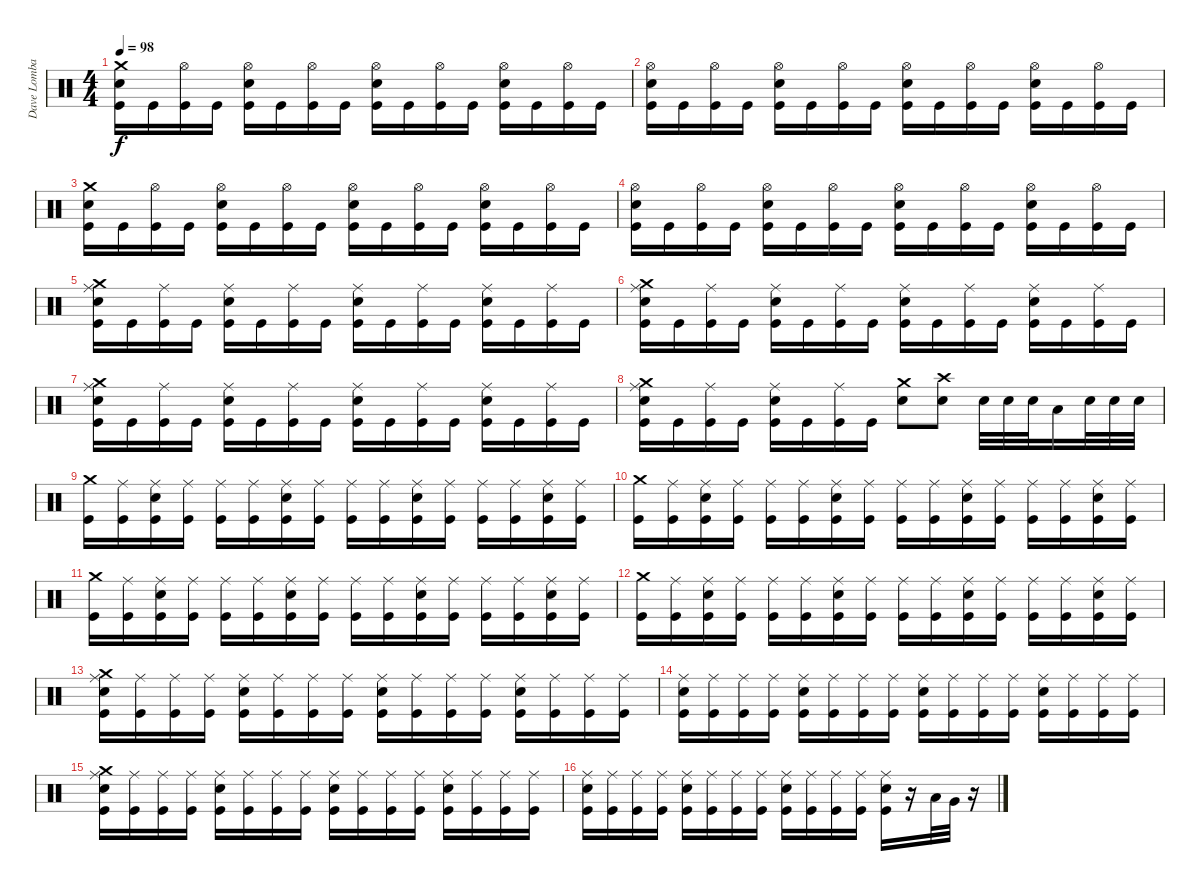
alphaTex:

\track ("Dave Lombardo (Drum)" "Dave Lomba") {instrument percussion}
\staff {score}
\articulation defaults
\ts (4 4)
\tempo 98
\clef neutral
\ks c
("Snare (hit) 2" "Crash medium (hit)" "Kick (hit)").16{dy f} "Kick (hit)".16 ("Hi-Hat (open)" "Kick (hit)").16 "Kick (hit)".16 ("Snare (hit) 2" "Hi-Hat (open)" "Kick (hit)").16 "Kick (hit)".16 ("Hi-Hat (open)" "Kick (hit)").16 "Kick (hit)".16 ("Snare (hit) 2" "Hi-Hat (open)" "Kick (hit)").16 "Kick (hit)".16 ("Hi-Hat (open)" "Kick (hit)").16 "Kick (hit)".16 ("Snare (hit) 2" "Hi-Hat (open)" "Kick (hit)").16 "Kick (hit)".16 ("Hi-Hat (open)" "Kick (hit)").16 "Kick (hit)".16 |
("Snare (hit) 2" "Hi-Hat (open)" "Kick (hit)").16 "Kick (hit)".16 ("Hi-Hat (open)" "Kick (hit)").16 "Kick (hit)".16 ("Snare (hit) 2" "Hi-Hat (open)" "Kick (hit)").16 "Kick (hit)".16 ("Hi-Hat (open)" "Kick (hit)").16 "Kick (hit)".16 ("Snare (hit) 2" "Hi-Hat (open)" "Kick (hit)").16 "Kick (hit)".16 ("Hi-Hat (open)" "Kick (hit)").16 "Kick (hit)".16 ("Snare (hit) 2" "Hi-Hat (open)" "Kick (hit)").16 "Kick (hit)".16 ("Hi-Hat (open)" "Kick (hit)").16 "Kick (hit)".16 |
("Snare (hit) 2" "Crash medium (hit)" "Kick (hit)").16 "Kick (hit)".16 ("Hi-Hat (open)" "Kick (hit)").16 "Kick (hit)".16 ("Snare (hit) 2" "Hi-Hat (open)" "Kick (hit)").16 "Kick (hit)".16 ("Hi-Hat (open)" "Kick (hit)").16 "Kick (hit)".16 ("Snare (hit) 2" "Hi-Hat (open)" "Kick (hit)").16 "Kick (hit)".16 ("Hi-Hat (open)" "Kick (hit)").16 "Kick (hit)".16 ("Snare (hit) 2" "Hi-Hat (open)" "Kick (hit)").16 "Kick (hit)".16 ("Hi-Hat (open)" "Kick (hit)").16 "Kick (hit)".16 |
("Snare (hit) 2" "Hi-Hat (open)" "Kick (hit)").16 "Kick (hit)".16 ("Hi-Hat (open)" "Kick (hit)").16 "Kick (hit)".16 ("Snare (hit) 2" "Hi-Hat (open)" "Kick (hit)").16 "Kick (hit)".16 ("Hi-Hat (open)" "Kick (hit)").16 "Kick (hit)".16 ("Snare (hit) 2" "Hi-Hat (open)" "Kick (hit)").16 "Kick (hit)".16 ("Hi-Hat (open)" "Kick (hit)").16 "Kick (hit)".16 ("Snare (hit) 2" "Hi-Hat (open)" "Kick (hit)").16 "Kick (hit)".16 ("Hi-Hat (open)" "Kick (hit)").16 "Kick (hit)".16 |
("Crash medium (hit)" "Snare (hit) 2" "Ride (middle)" "Kick (hit)").16 "Kick (hit)".16 ("Ride (middle)" "Kick (hit)").16 "Kick (hit)".16 ("Snare (hit) 2" "Ride (middle)" "Kick (hit)").16 "Kick (hit)".16 ("Ride (middle)" "Kick (hit)").16 "Kick (hit)".16 ("Snare (hit) 2" "Ride (middle)" "Kick (hit)").16 "Kick (hit)".16 ("Ride (middle)" "Kick (hit)").16 "Kick (hit)".16 ("Snare (hit) 2" "Ride (middle)" "Kick (hit)").16 "Kick (hit)".16 ("Ride (middle)" "Kick (hit)").16 "Kick (hit)".16 |
("Crash medium (hit)" "Snare (hit) 2" "Ride (middle)" "Kick (hit)").16 "Kick (hit)".16 ("Ride (middle)" "Kick (hit)").16 "Kick (hit)".16 ("Snare (hit) 2" "Ride (middle)" "Kick (hit)").16 "Kick (hit)".16 ("Ride (middle)" "Kick (hit)").16 "Kick (hit)".16 ("Snare (hit) 2" "Ride (middle)" "Kick (hit)").16 "Kick (hit)".16 ("Ride (middle)" "Kick (hit)").16 "Kick (hit)".16 ("Snare (hit) 2" "Ride (middle)" "Kick (hit)").16 "Kick (hit)".16 ("Ride (middle)" "Kick (hit)").16 "Kick (hit)".16 |
("Crash medium (hit)" "Snare (hit) 2" "Ride (middle)" "Kick (hit)").16 "Kick (hit)".16 ("Ride (middle)" "Kick (hit)").16 "Kick (hit)".16 ("Snare (hit) 2" "Ride (middle)" "Kick (hit)").16 "Kick (hit)".16 ("Ride (middle)" "Kick (hit)").16 "Kick (hit)".16 ("Snare (hit) 2" "Ride (middle)" "Kick (hit)").16 "Kick (hit)".16 ("Ride (middle)" "Kick (hit)").16 "Kick (hit)".16 ("Snare (hit) 2" "Ride (middle)" "Kick (hit)").16 "Kick (hit)".16 ("Ride (middle)" "Kick (hit)").16 "Kick (hit)".16 |
("Crash medium (hit)" "Snare (hit) 2" "Ride (middle)" "Kick (hit)").16 "Kick (hit)".16 ("Ride (middle)" "Kick (hit)").16 "Kick (hit)".16 ("Snare (hit) 2" "Ride (middle)" "Kick (hit)").16 "Kick (hit)".16 ("Ride (middle)" "Kick (hit)").16 "Kick (hit)".16 ("Snare (hit) 2" "Crash medium (hit)").8 ("Crash high (hit)" "Snare (hit) 2").8 "Snare (hit) 2".32 "Snare (hit) 2".32 "Snare (hit) 2".32 "Low Tom (hit)".16 "Snare (hit) 2".32 "Snare (hit) 2".32 "Snare (hit) 2".32 |
("Crash medium (hit)" "Kick (hit)").16 ("Ride (middle)" "Kick (hit)").16 ("Snare (hit) 2" "Ride (middle)" "Kick (hit)").16 ("Ride (middle)" "Kick (hit)").16 ("Ride (middle)" "Kick (hit)").16 ("Ride (middle)" "Kick (hit)").16 ("Snare (hit) 2" "Ride (middle)" "Kick (hit)").16 ("Ride (middle)" "Kick (hit)").16 ("Ride (middle)" "Kick (hit)").16 ("Ride (middle)" "Kick (hit)").16 ("Snare (hit) 2" "Ride (middle)" "Kick (hit)").16 ("Ride (middle)" "Kick (hit)").16 ("Ride (middle)" "Kick (hit)").16 ("Ride (middle)" "Kick (hit)").16 ("Snare (hit) 2" "Ride (middle)" "Kick (hit)").16 ("Ride (middle)" "Kick (hit)").16 |
("Crash medium (hit)" "Kick (hit)").16 ("Ride (middle)" "Kick (hit)").16 ("Snare (hit) 2" "Ride (middle)" "Kick (hit)").16 ("Ride (middle)" "Kick (hit)").16 ("Ride (middle)" "Kick (hit)").16 ("Ride (middle)" "Kick (hit)").16 ("Snare (hit) 2" "Ride (middle)" "Kick (hit)").16 ("Ride (middle)" "Kick (hit)").16 ("Ride (middle)" "Kick (hit)").16 ("Ride (middle)" "Kick (hit)").16 ("Snare (hit) 2" "Ride (middle)" "Kick (hit)").16 ("Ride (middle)" "Kick (hit)").16 ("Ride (middle)" "Kick (hit)").16 ("Ride (middle)" "Kick (hit)").16 ("Snare (hit) 2" "Ride (middle)" "Kick (hit)").16 ("Ride (middle)" "Kick (hit)").16 |
("Crash medium (hit)" "Kick (hit)").16 ("Ride (middle)" "Kick (hit)").16 ("Snare (hit) 2" "Ride (middle)" "Kick (hit)").16 ("Ride (middle)" "Kick (hit)").16 ("Ride (middle)" "Kick (hit)").16 ("Ride (middle)" "Kick (hit)").16 ("Snare (hit) 2" "Ride (middle)" "Kick (hit)").16 ("Ride (middle)" "Kick (hit)").16 ("Ride (middle)" "Kick (hit)").16 ("Ride (middle)" "Kick (hit)").16 ("Snare (hit) 2" "Ride (middle)" "Kick (hit)").16 ("Ride (middle)" "Kick (hit)").16 ("Ride (middle)" "Kick (hit)").16 ("Ride (middle)" "Kick (hit)").16 ("Snare (hit) 2" "Ride (middle)" "Kick (hit)").16 ("Ride (middle)" "Kick (hit)").16 |
("Crash medium (hit)" "Kick (hit)").16 ("Ride (middle)" "Kick (hit)").16 ("Snare (hit) 2" "Ride (middle)" "Kick (hit)").16 ("Ride (middle)" "Kick (hit)").16 ("Ride (middle)" "Kick (hit)").16 ("Ride (middle)" "Kick (hit)").16 ("Snare (hit) 2" "Ride (middle)" "Kick (hit)").16 ("Ride (middle)" "Kick (hit)").16 ("Ride (middle)" "Kick (hit)").16 ("Ride (middle)" "Kick (hit)").16 ("Snare (hit) 2" "Ride (middle)" "Kick (hit)").16 ("Ride (middle)" "Kick (hit)").16 ("Ride (middle)" "Kick (hit)").16 ("Ride (middle)" "Kick (hit)").16 ("Snare (hit) 2" "Ride (middle)" "Kick (hit)").16 ("Ride (middle)" "Kick (hit)").16 |
("Crash medium (hit)" "Snare (hit) 2" "Ride (middle)" "Kick (hit)").16 ("Ride (middle)" "Kick (hit)").16 ("Ride (middle)" "Kick (hit)").16 ("Ride (middle)" "Kick (hit)").16 ("Snare (hit) 2" "Ride (middle)" "Kick (hit)").16 ("Ride (middle)" "Kick (hit)").16 ("Ride (middle)" "Kick (hit)").16 ("Ride (middle)" "Kick (hit)").16 ("Snare (hit) 2" "Ride (middle)" "Kick (hit)").16 ("Ride (middle)" "Kick (hit)").16 ("Ride (middle)" "Kick (hit)").16 ("Ride (middle)" "Kick (hit)").16 ("Snare (hit) 2" "Ride (middle)" "Kick (hit)").16 ("Ride (middle)" "Kick (hit)").16 ("Ride (middle)" "Kick (hit)").16 ("Ride (middle)" "Kick (hit)").16 |
("Snare (hit) 2" "Ride (middle)" "Kick (hit)").16 ("Ride (middle)" "Kick (hit)").16 ("Ride (middle)" "Kick (hit)").16 ("Ride (middle)" "Kick (hit)").16 ("Snare (hit) 2" "Ride (middle)" "Kick (hit)").16 ("Ride (middle)" "Kick (hit)").16 ("Ride (middle)" "Kick (hit)").16 ("Ride (middle)" "Kick (hit)").16 ("Snare (hit) 2" "Ride (middle)" "Kick (hit)").16 ("Ride (middle)" "Kick (hit)").16 ("Ride (middle)" "Kick (hit)").16 ("Ride (middle)" "Kick (hit)").16 ("Snare (hit) 2" "Ride (middle)" "Kick (hit)").16 ("Ride (middle)" "Kick (hit)").16 ("Ride (middle)" "Kick (hit)").16 ("Ride (middle)" "Kick (hit)").16 |
("Crash medium (hit)" "Snare (hit) 2" "Ride (middle)" "Kick (hit)").16 ("Ride (middle)" "Kick (hit)").16 ("Ride (middle)" "Kick (hit)").16 ("Ride (middle)" "Kick (hit)").16 ("Snare (hit) 2" "Ride (middle)" "Kick (hit)").16 ("Ride (middle)" "Kick (hit)").16 ("Ride (middle)" "Kick (hit)").16 ("Ride (middle)" "Kick (hit)").16 ("Snare (hit) 2" "Ride (middle)" "Kick (hit)").16 ("Ride (middle)" "Kick (hit)").16 ("Ride (middle)" "Kick (hit)").16 ("Ride (middle)" "Kick (hit)").16 ("Snare (hit) 2" "Ride (middle)" "Kick (hit)").16 ("Ride (middle)" "Kick (hit)").16 ("Ride (middle)" "Kick (hit)").16 ("Ride (middle)" "Kick (hit)").16 |
("Snare (hit) 2" "Ride (middle)" "Kick (hit)").16 ("Ride (middle)" "Kick (hit)").16 ("Ride (middle)" "Kick (hit)").16 ("Ride (middle)" "Kick (hit)").16 ("Snare (hit) 2" "Ride (middle)" "Kick (hit)").16 ("Ride (middle)" "Kick (hit)").16 ("Ride (middle)" "Kick (hit)").16 ("Ride (middle)" "Kick (hit)").16 ("Snare (hit) 2" "Ride (middle)" "Kick (hit)").16 ("Ride (middle)" "Kick (hit)").16 ("Ride (middle)" "Kick (hit)").16 ("Ride (middle)" "Kick (hit)").16 ("Snare (hit) 2" "Ride (middle)" "Kick (hit)").16 r.16 "Low Tom (hit)".32 "Very Low Tom (hit)".32 r.16
